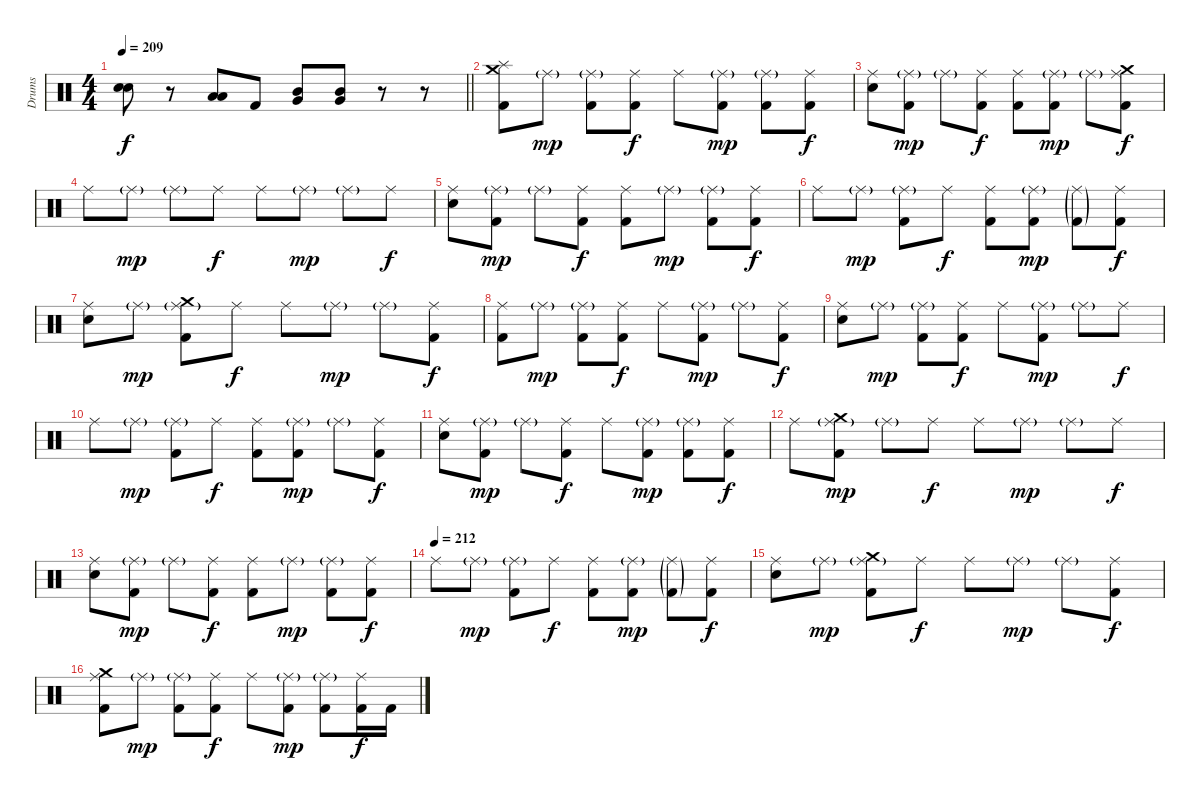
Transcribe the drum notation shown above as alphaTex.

\track ("Drums" "Drums") {instrument percussion}
\staff {score}
\articulation defaults
\ts (4 4)
\tempo 209
\clef neutral
\barLineRight lightlight
\ks c
("Electric Snare (hit)" "Electric Snare (hit)").8{dy f} r.8 ("Low Tom (hit)" "Low Floor Tom (hit)").8 "Kick (hit) 2".8 ("Mid Tom (hit)" "Very Low Tom (hit)").8 ("Mid Tom (hit)" "Very Low Tom (hit)").8 r.8 r.8 |
\section ("" "")
("Crash medium (hit)" "Splash (hit)" "Kick (hit) 2").8 "Ride (middle)"{g}.8{dy mp} ("Ride (middle)"{g} "Kick (hit) 2").8 ("Ride (middle)" "Kick (hit) 2").8{dy f} "Ride (middle)".8 ("Ride (middle)"{g} "Kick (hit) 2").8{dy mp} ("Ride (middle)"{g} "Kick (hit) 2").8 ("Ride (middle)" "Kick (hit) 2").8{dy f} |
("Ride (middle)" "Electric Snare (hit)").8 ("Ride (middle)"{g} "Kick (hit) 2").8{dy mp} "Ride (middle)"{g}.8 ("Ride (middle)" "Kick (hit) 2").8{dy f} ("Ride (middle)" "Kick (hit) 2").8 ("Ride (middle)"{g} "Kick (hit) 2").8{dy mp} "Ride (middle)"{g}.8 ("Crash medium (hit)" "Ride (middle)" "Kick (hit) 2").8{dy f} |
"Ride (middle)".8 "Ride (middle)"{g}.8{dy mp} "Ride (middle)"{g}.8 "Ride (middle)".8{dy f} "Ride (middle)".8 "Ride (middle)"{g}.8{dy mp} "Ride (middle)"{g}.8 "Ride (middle)".8{dy f} |
("Ride (middle)" "Electric Snare (hit)").8 ("Ride (middle)"{g} "Kick (hit) 2").8{dy mp} "Ride (middle)"{g}.8 ("Ride (middle)" "Kick (hit) 2").8{dy f} ("Ride (middle)" "Kick (hit) 2").8 "Ride (middle)"{g}.8{dy mp} ("Ride (middle)"{g} "Kick (hit) 2").8 ("Ride (middle)" "Kick (hit) 2").8{dy f} |
"Ride (middle)".8 "Ride (middle)"{g}.8{dy mp} ("Ride (middle)"{g} "Kick (hit) 2").8 "Ride (middle)".8{dy f} ("Ride (middle)" "Kick (hit) 2").8 ("Ride (middle)"{g} "Kick (hit) 2").8{dy mp} ("Ride (middle)"{g} "Kick (hit) 2"{g}).8 ("Ride (middle)" "Kick (hit) 2").8{dy f} |
("Ride (middle)" "Electric Snare (hit)").8 "Ride (middle)"{g}.8{dy mp} ("Crash medium (hit)" "Ride (middle)"{g} "Kick (hit) 2").8 "Ride (middle)".8{dy f} "Ride (middle)".8 "Ride (middle)"{g}.8{dy mp} "Ride (middle)"{g}.8 ("Ride (middle)" "Kick (hit) 2").8{dy f} |
("Ride (middle)" "Kick (hit) 2").8 "Ride (middle)"{g}.8{dy mp} ("Ride (middle)"{g} "Kick (hit) 2").8 ("Ride (middle)" "Kick (hit) 2").8{dy f} "Ride (middle)".8 ("Ride (middle)"{g} "Kick (hit) 2").8{dy mp} "Ride (middle)"{g}.8 ("Ride (middle)" "Kick (hit) 2").8{dy f} |
("Ride (middle)" "Electric Snare (hit)").8 "Ride (middle)"{g}.8{dy mp} ("Ride (middle)"{g} "Kick (hit) 2").8 ("Ride (middle)" "Kick (hit) 2").8{dy f} "Ride (middle)".8 ("Ride (middle)"{g} "Kick (hit) 2").8{dy mp} "Ride (middle)"{g}.8 "Ride (middle)".8{dy f} |
"Ride (middle)".8 "Ride (middle)"{g}.8{dy mp} ("Ride (middle)"{g} "Kick (hit) 2").8 "Ride (middle)".8{dy f} ("Ride (middle)" "Kick (hit) 2").8 ("Ride (middle)"{g} "Kick (hit) 2").8{dy mp} "Ride (middle)"{g}.8 ("Ride (middle)" "Kick (hit) 2").8{dy f} |
("Ride (middle)" "Electric Snare (hit)").8 ("Ride (middle)"{g} "Kick (hit) 2").8{dy mp} "Ride (middle)"{g}.8 ("Ride (middle)" "Kick (hit) 2").8{dy f} "Ride (middle)".8 ("Ride (middle)"{g} "Kick (hit) 2").8{dy mp} ("Ride (middle)"{g} "Kick (hit) 2").8 ("Ride (middle)" "Kick (hit) 2").8{dy f} |
"Ride (middle)".8 ("Crash medium (hit)" "Ride (middle)"{g} "Kick (hit) 2").8{dy mp} "Ride (middle)"{g}.8 "Ride (middle)".8{dy f} "Ride (middle)".8 "Ride (middle)"{g}.8{dy mp} "Ride (middle)"{g}.8 "Ride (middle)".8{dy f} |
("Ride (middle)" "Electric Snare (hit)").8 ("Ride (middle)"{g} "Kick (hit) 2").8{dy mp} "Ride (middle)"{g}.8 ("Ride (middle)" "Kick (hit) 2").8{dy f} ("Ride (middle)" "Kick (hit) 2").8 "Ride (middle)"{g}.8{dy mp} ("Ride (middle)"{g} "Kick (hit) 2").8 ("Ride (middle)" "Kick (hit) 2").8{dy f} |
\tempo (212)
"Ride (middle)".8 "Ride (middle)"{g}.8{dy mp} ("Ride (middle)"{g} "Kick (hit) 2").8 "Ride (middle)".8{dy f} ("Ride (middle)" "Kick (hit) 2").8 ("Ride (middle)"{g} "Kick (hit) 2").8{dy mp} ("Ride (middle)"{g} "Kick (hit) 2"{g}).8 ("Ride (middle)" "Kick (hit) 2").8{dy f} |
("Ride (middle)" "Electric Snare (hit)").8 "Ride (middle)"{g}.8{dy mp} ("Crash medium (hit)" "Ride (middle)"{g} "Kick (hit) 2").8 "Ride (middle)".8{dy f} "Ride (middle)".8 "Ride (middle)"{g}.8{dy mp} "Ride (middle)"{g}.8 ("Ride (middle)" "Kick (hit) 2").8{dy f} |
("Crash medium (hit)" "Ride (middle)" "Kick (hit) 2").8 "Ride (middle)"{g}.8{dy mp} ("Ride (middle)"{g} "Kick (hit) 2").8 ("Ride (middle)" "Kick (hit) 2").8{dy f} "Ride (middle)".8 ("Ride (middle)"{g} "Kick (hit) 2").8{dy mp} ("Ride (middle)"{g} "Kick (hit) 2").8 ("Ride (middle)" "Kick (hit) 2").16{dy f} "Kick (hit) 2".16
